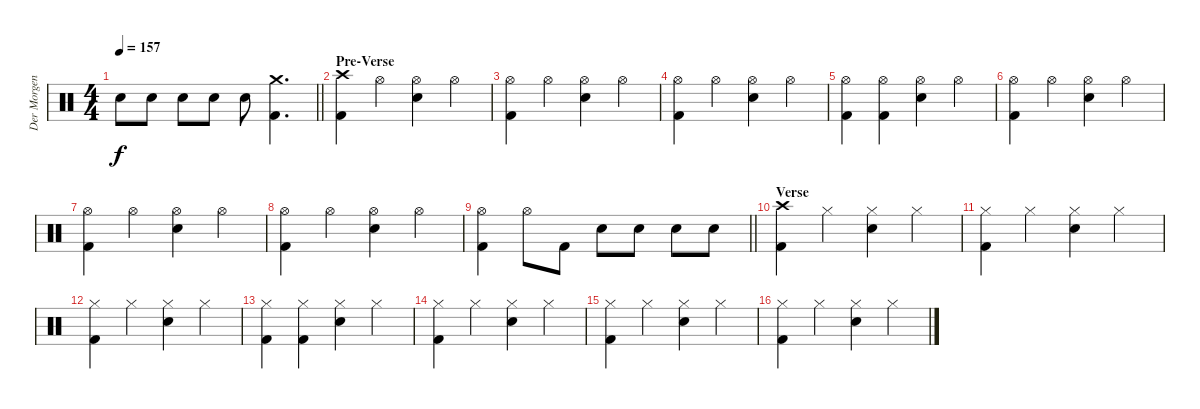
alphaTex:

\track ("Der Morgenstern" "Der Morgen") {instrument percussion}
\staff {score}
\articulation defaults
\ts (4 4)
\tempo 157
\clef neutral
\barLineRight lightlight
\ks c "Electric Snare (hit)".8{dy f} "Electric Snare (hit)".8 "Electric Snare (hit)".8 "Electric Snare (hit)".8 "Electric Snare (hit)".8
("Crash medium (hit)" "Kick (hit) 2").4{d} |
\section ("" "Pre-Verse")
("Crash high (hit)" "Kick (hit) 2").4 "Hi-Hat (open)".4 ("Hi-Hat (open)" "Electric Snare (hit)").4 "Hi-Hat (open)".4 |
("Hi-Hat (open)" "Kick (hit) 2").4 "Hi-Hat (open)".4 ("Hi-Hat (open)" "Electric Snare (hit)").4 "Hi-Hat (open)".4 |
("Hi-Hat (open)" "Kick (hit) 2").4 "Hi-Hat (open)".4 ("Hi-Hat (open)" "Electric Snare (hit)").4 "Hi-Hat (open)".4 |
("Hi-Hat (open)" "Kick (hit) 2").4 ("Hi-Hat (open)" "Kick (hit) 2").4 ("Hi-Hat (open)" "Electric Snare (hit)").4 "Hi-Hat (open)".4 |
("Hi-Hat (open)" "Kick (hit) 2").4 "Hi-Hat (open)".4 ("Hi-Hat (open)" "Electric Snare (hit)").4 "Hi-Hat (open)".4 |
("Hi-Hat (open)" "Kick (hit) 2").4 "Hi-Hat (open)".4 ("Hi-Hat (open)" "Electric Snare (hit)").4 "Hi-Hat (open)".4 |
("Hi-Hat (open)" "Kick (hit) 2").4 "Hi-Hat (open)".4 ("Hi-Hat (open)" "Electric Snare (hit)").4 "Hi-Hat (open)".4 |
\barLineRight lightlight
("Hi-Hat (open)" "Kick (hit) 2").4 "Hi-Hat (open)".8 "Kick (hit) 2".8 "Electric Snare (hit)".8 "Electric Snare (hit)".8 "Electric Snare (hit)".8 "Electric Snare (hit)".8 |
\section ("" "Verse")
("Crash high (hit)" "Kick (hit) 2").4 "Hi-Hat (closed)".4 ("Hi-Hat (closed)" "Electric Snare (hit)").4 "Hi-Hat (closed)".4 |
("Hi-Hat (closed)" "Kick (hit) 2").4 "Hi-Hat (closed)".4 ("Hi-Hat (closed)" "Electric Snare (hit)").4 "Hi-Hat (closed)".4 |
("Hi-Hat (closed)" "Kick (hit) 2").4 "Hi-Hat (closed)".4 ("Hi-Hat (closed)" "Electric Snare (hit)").4 "Hi-Hat (closed)".4 |
("Hi-Hat (closed)" "Kick (hit) 2").4 ("Hi-Hat (closed)" "Kick (hit) 2").4 ("Hi-Hat (closed)" "Electric Snare (hit)").4 "Hi-Hat (closed)".4 |
("Hi-Hat (closed)" "Kick (hit) 2").4 "Hi-Hat (closed)".4 ("Hi-Hat (closed)" "Electric Snare (hit)").4 "Hi-Hat (closed)".4 |
("Hi-Hat (closed)" "Kick (hit) 2").4 "Hi-Hat (closed)".4 ("Hi-Hat (closed)" "Electric Snare (hit)").4 "Hi-Hat (closed)".4 |
("Hi-Hat (closed)" "Kick (hit) 2").4 "Hi-Hat (closed)".4 ("Hi-Hat (closed)" "Electric Snare (hit)").4 "Hi-Hat (closed)".4
